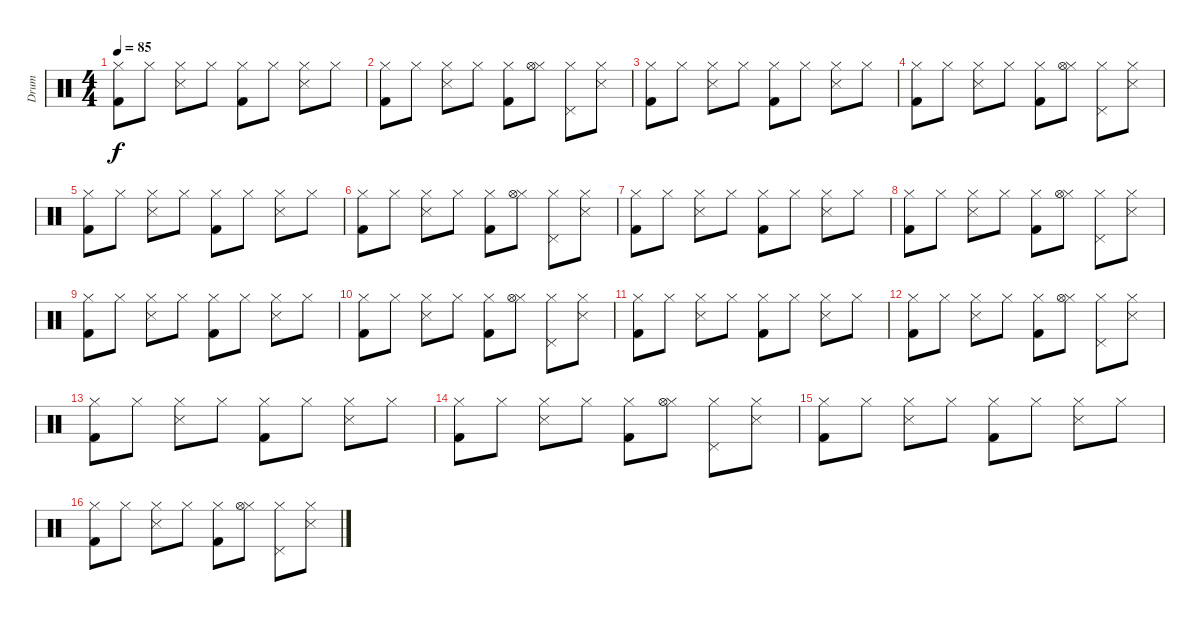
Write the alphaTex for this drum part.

\track ("Drum" "Drum") {instrument percussion}
\staff {score}
\articulation defaults
\ts (4 4)
\tempo 85
\clef neutral
\ks c
("Hi-Hat (closed)" "Kick (hit) 2").8{dy f} "Hi-Hat (closed)".8 ("Snare (side stick) 3" "Hi-Hat (closed)").8 "Hi-Hat (closed)".8 ("Hi-Hat (closed)" "Kick (hit) 2").8 "Hi-Hat (closed)".8 ("Snare (side stick) 3" "Hi-Hat (closed)").8 "Hi-Hat (closed)".8 |
("Hi-Hat (closed)" "Kick (hit) 2").8 "Hi-Hat (closed)".8 ("Snare (side stick) 3" "Hi-Hat (closed)").8 "Hi-Hat (closed)".8 ("Hi-Hat (closed)" "Kick (hit) 2").8 ("Hi-Hat (closed)" "Hi-Hat (open)").8 ("Hi-Hat (closed)" "Pedal Hi-Hat (hit)").8 ("Snare (side stick) 3" "Hi-Hat (closed)").8 |
("Hi-Hat (closed)" "Kick (hit) 2").8 "Hi-Hat (closed)".8 ("Snare (side stick) 3" "Hi-Hat (closed)").8 "Hi-Hat (closed)".8 ("Hi-Hat (closed)" "Kick (hit) 2").8 "Hi-Hat (closed)".8 ("Snare (side stick) 3" "Hi-Hat (closed)").8 "Hi-Hat (closed)".8 |
("Hi-Hat (closed)" "Kick (hit) 2").8 "Hi-Hat (closed)".8 ("Snare (side stick) 3" "Hi-Hat (closed)").8 "Hi-Hat (closed)".8 ("Hi-Hat (closed)" "Kick (hit) 2").8 ("Hi-Hat (closed)" "Hi-Hat (open)").8 ("Hi-Hat (closed)" "Pedal Hi-Hat (hit)").8 ("Snare (side stick) 3" "Hi-Hat (closed)").8 |
("Hi-Hat (closed)" "Kick (hit) 2").8 "Hi-Hat (closed)".8 ("Snare (side stick) 3" "Hi-Hat (closed)").8 "Hi-Hat (closed)".8 ("Hi-Hat (closed)" "Kick (hit) 2").8 "Hi-Hat (closed)".8 ("Snare (side stick) 3" "Hi-Hat (closed)").8 "Hi-Hat (closed)".8 |
("Hi-Hat (closed)" "Kick (hit) 2").8 "Hi-Hat (closed)".8 ("Snare (side stick) 3" "Hi-Hat (closed)").8 "Hi-Hat (closed)".8 ("Hi-Hat (closed)" "Kick (hit) 2").8 ("Hi-Hat (closed)" "Hi-Hat (open)").8 ("Hi-Hat (closed)" "Pedal Hi-Hat (hit)").8 ("Snare (side stick) 3" "Hi-Hat (closed)").8 |
("Hi-Hat (closed)" "Kick (hit) 2").8 "Hi-Hat (closed)".8 ("Snare (side stick) 3" "Hi-Hat (closed)").8 "Hi-Hat (closed)".8 ("Hi-Hat (closed)" "Kick (hit) 2").8 "Hi-Hat (closed)".8 ("Snare (side stick) 3" "Hi-Hat (closed)").8 "Hi-Hat (closed)".8 |
("Hi-Hat (closed)" "Kick (hit) 2").8 "Hi-Hat (closed)".8 ("Snare (side stick) 3" "Hi-Hat (closed)").8 "Hi-Hat (closed)".8 ("Hi-Hat (closed)" "Kick (hit) 2").8 ("Hi-Hat (closed)" "Hi-Hat (open)").8 ("Hi-Hat (closed)" "Pedal Hi-Hat (hit)").8 ("Snare (side stick) 3" "Hi-Hat (closed)").8 |
("Hi-Hat (closed)" "Kick (hit) 2").8 "Hi-Hat (closed)".8 ("Snare (side stick) 3" "Hi-Hat (closed)").8 "Hi-Hat (closed)".8 ("Hi-Hat (closed)" "Kick (hit) 2").8 "Hi-Hat (closed)".8 ("Snare (side stick) 3" "Hi-Hat (closed)").8 "Hi-Hat (closed)".8 |
("Hi-Hat (closed)" "Kick (hit) 2").8 "Hi-Hat (closed)".8 ("Snare (side stick) 3" "Hi-Hat (closed)").8 "Hi-Hat (closed)".8 ("Hi-Hat (closed)" "Kick (hit) 2").8 ("Hi-Hat (closed)" "Hi-Hat (open)").8 ("Hi-Hat (closed)" "Pedal Hi-Hat (hit)").8 ("Snare (side stick) 3" "Hi-Hat (closed)").8 |
("Hi-Hat (closed)" "Kick (hit) 2").8 "Hi-Hat (closed)".8 ("Snare (side stick) 3" "Hi-Hat (closed)").8 "Hi-Hat (closed)".8 ("Hi-Hat (closed)" "Kick (hit) 2").8 "Hi-Hat (closed)".8 ("Snare (side stick) 3" "Hi-Hat (closed)").8 "Hi-Hat (closed)".8 |
("Hi-Hat (closed)" "Kick (hit) 2").8 "Hi-Hat (closed)".8 ("Snare (side stick) 3" "Hi-Hat (closed)").8 "Hi-Hat (closed)".8 ("Hi-Hat (closed)" "Kick (hit) 2").8 ("Hi-Hat (closed)" "Hi-Hat (open)").8 ("Hi-Hat (closed)" "Pedal Hi-Hat (hit)").8 ("Snare (side stick) 3" "Hi-Hat (closed)").8 |
("Hi-Hat (closed)" "Kick (hit) 2").8 "Hi-Hat (closed)".8 ("Snare (side stick) 3" "Hi-Hat (closed)").8 "Hi-Hat (closed)".8 ("Hi-Hat (closed)" "Kick (hit) 2").8 "Hi-Hat (closed)".8 ("Snare (side stick) 3" "Hi-Hat (closed)").8 "Hi-Hat (closed)".8 |
("Hi-Hat (closed)" "Kick (hit) 2").8 "Hi-Hat (closed)".8 ("Snare (side stick) 3" "Hi-Hat (closed)").8 "Hi-Hat (closed)".8 ("Hi-Hat (closed)" "Kick (hit) 2").8 ("Hi-Hat (closed)" "Hi-Hat (open)").8 ("Hi-Hat (closed)" "Pedal Hi-Hat (hit)").8 ("Snare (side stick) 3" "Hi-Hat (closed)").8 |
("Hi-Hat (closed)" "Kick (hit) 2").8 "Hi-Hat (closed)".8 ("Snare (side stick) 3" "Hi-Hat (closed)").8 "Hi-Hat (closed)".8 ("Hi-Hat (closed)" "Kick (hit) 2").8 "Hi-Hat (closed)".8 ("Snare (side stick) 3" "Hi-Hat (closed)").8 "Hi-Hat (closed)".8 |
("Hi-Hat (closed)" "Kick (hit) 2").8 "Hi-Hat (closed)".8 ("Snare (side stick) 3" "Hi-Hat (closed)").8 "Hi-Hat (closed)".8 ("Hi-Hat (closed)" "Kick (hit) 2").8 ("Hi-Hat (closed)" "Hi-Hat (open)").8 ("Hi-Hat (closed)" "Pedal Hi-Hat (hit)").8 ("Snare (side stick) 3" "Hi-Hat (closed)").8
